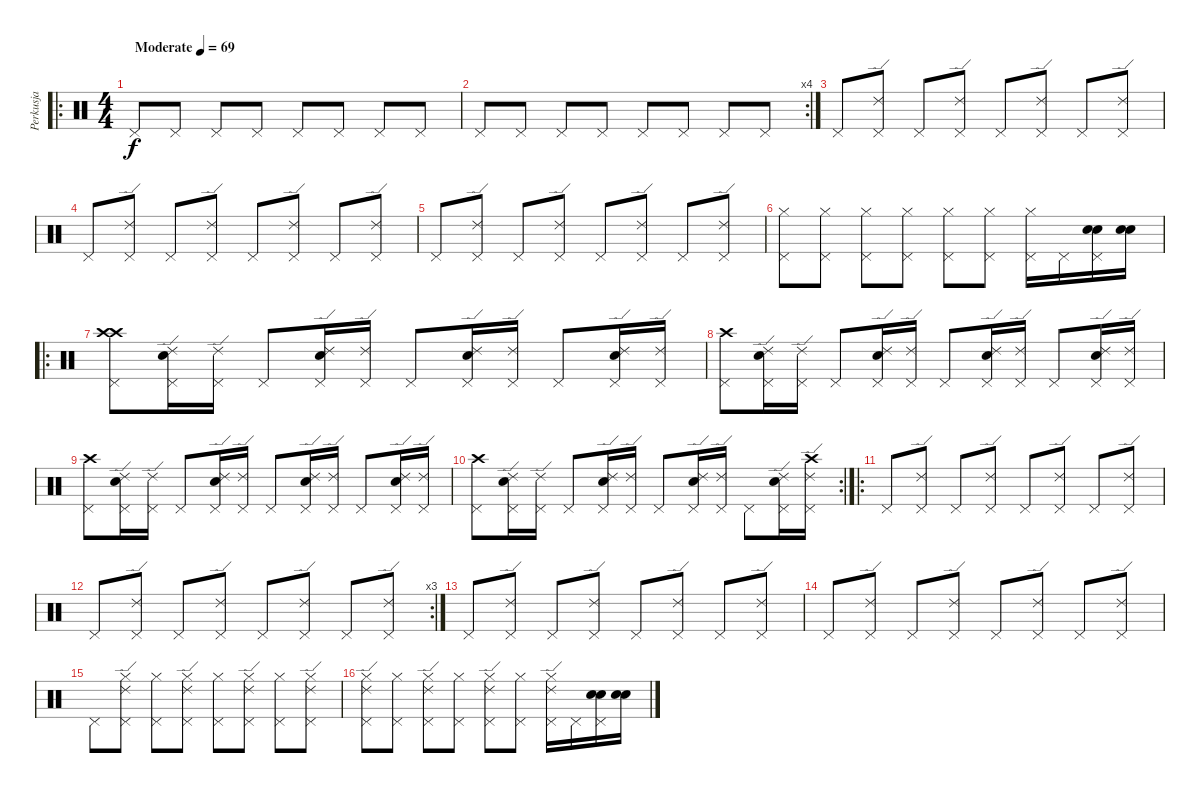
\track ("Perkusja" "Perkusja") {instrument percussion}
\staff {score}
\articulation defaults
\ro
\ts (4 4)
\tempo (69 "Moderate")
\clef neutral
\ks c "Pedal Hi-Hat (hit)".8{dy f} "Pedal Hi-Hat (hit)".8 "Pedal Hi-Hat (hit)".8 "Pedal Hi-Hat (hit)".8 "Pedal Hi-Hat (hit)".8 "Pedal Hi-Hat (hit)".8 "Pedal Hi-Hat (hit)".8 "Pedal Hi-Hat (hit)".8
|
\rc 4 "Pedal Hi-Hat (hit)".8 "Pedal Hi-Hat (hit)".8 "Pedal Hi-Hat (hit)".8 "Pedal Hi-Hat (hit)".8 "Pedal Hi-Hat (hit)".8 "Pedal Hi-Hat (hit)".8 "Pedal Hi-Hat (hit)".8 "Pedal Hi-Hat (hit)".8
|
"Pedal Hi-Hat (hit)".8 ("Pedal Hi-Hat (hit)" "Ride (edge) 2").8 "Pedal Hi-Hat (hit)".8 ("Pedal Hi-Hat (hit)" "Ride (edge) 2").8 "Pedal Hi-Hat (hit)".8 ("Pedal Hi-Hat (hit)" "Ride (edge) 2").8 "Pedal Hi-Hat (hit)".8 ("Pedal Hi-Hat (hit)" "Ride (edge) 2").8 |
"Pedal Hi-Hat (hit)".8 ("Pedal Hi-Hat (hit)" "Ride (edge) 2").8 "Pedal Hi-Hat (hit)".8 ("Pedal Hi-Hat (hit)" "Ride (edge) 2").8 "Pedal Hi-Hat (hit)".8 ("Pedal Hi-Hat (hit)" "Ride (edge) 2").8 "Pedal Hi-Hat (hit)".8 ("Pedal Hi-Hat (hit)" "Ride (edge) 2").8 |
"Pedal Hi-Hat (hit)".8 ("Pedal Hi-Hat (hit)" "Ride (edge) 2").8 "Pedal Hi-Hat (hit)".8 ("Pedal Hi-Hat (hit)" "Ride (edge) 2").8 "Pedal Hi-Hat (hit)".8 ("Pedal Hi-Hat (hit)" "Ride (edge) 2").8 "Pedal Hi-Hat (hit)".8 ("Pedal Hi-Hat (hit)" "Ride (edge) 2").8 |
("Pedal Hi-Hat (hit)" "Hi-Hat (closed)").8 ("Pedal Hi-Hat (hit)" "Hi-Hat (closed)").8 ("Pedal Hi-Hat (hit)" "Hi-Hat (closed)").8 ("Pedal Hi-Hat (hit)" "Hi-Hat (closed)").8 ("Pedal Hi-Hat (hit)" "Hi-Hat (closed)").8 ("Pedal Hi-Hat (hit)" "Hi-Hat (closed)").8 ("Pedal Hi-Hat (hit)" "Hi-Hat (closed)").16 "Pedal Hi-Hat (hit)".16 ("Pedal Hi-Hat (hit)" "Snare (hit) 2" "Snare (hit) 2").16 ("Snare (hit) 2" "Snare (hit) 2").16 |
\ro
("Pedal Hi-Hat (hit)" "Crash high (hit)" "Crash high (hit)").8 ("Pedal Hi-Hat (hit)" "Ride (edge) 2" "Snare (hit) 2").16 ("Pedal Hi-Hat (hit)" "Ride (edge) 2").16 "Pedal Hi-Hat (hit)".8 ("Pedal Hi-Hat (hit)" "Ride (edge) 2" "Snare (hit) 2").16 ("Pedal Hi-Hat (hit)" "Ride (edge) 2").16 "Pedal Hi-Hat (hit)".8 ("Pedal Hi-Hat (hit)" "Ride (edge) 2" "Snare (hit) 2").16 ("Pedal Hi-Hat (hit)" "Ride (edge) 2").16 "Pedal Hi-Hat (hit)".8 ("Pedal Hi-Hat (hit)" "Ride (edge) 2" "Snare (hit) 2").16 ("Pedal Hi-Hat (hit)" "Ride (edge) 2").16 |
("Pedal Hi-Hat (hit)" "Crash high (hit)").8 ("Pedal Hi-Hat (hit)" "Ride (edge) 2" "Snare (hit) 2").16 ("Pedal Hi-Hat (hit)" "Ride (edge) 2").16 "Pedal Hi-Hat (hit)".8 ("Pedal Hi-Hat (hit)" "Ride (edge) 2" "Snare (hit) 2").16 ("Pedal Hi-Hat (hit)" "Ride (edge) 2").16 "Pedal Hi-Hat (hit)".8 ("Pedal Hi-Hat (hit)" "Ride (edge) 2" "Snare (hit) 2").16 ("Pedal Hi-Hat (hit)" "Ride (edge) 2").16 "Pedal Hi-Hat (hit)".8 ("Pedal Hi-Hat (hit)" "Ride (edge) 2" "Snare (hit) 2").16 ("Pedal Hi-Hat (hit)" "Ride (edge) 2").16 |
("Pedal Hi-Hat (hit)" "Crash high (hit)").8 ("Pedal Hi-Hat (hit)" "Ride (edge) 2" "Snare (hit) 2").16 ("Pedal Hi-Hat (hit)" "Ride (edge) 2").16 "Pedal Hi-Hat (hit)".8 ("Pedal Hi-Hat (hit)" "Ride (edge) 2" "Snare (hit) 2").16 ("Pedal Hi-Hat (hit)" "Ride (edge) 2").16 "Pedal Hi-Hat (hit)".8 ("Pedal Hi-Hat (hit)" "Ride (edge) 2" "Snare (hit) 2").16 ("Pedal Hi-Hat (hit)" "Ride (edge) 2").16 "Pedal Hi-Hat (hit)".8 ("Pedal Hi-Hat (hit)" "Ride (edge) 2" "Snare (hit) 2").16 ("Pedal Hi-Hat (hit)" "Ride (edge) 2").16 |
\rc 2
("Pedal Hi-Hat (hit)" "Crash high (hit)").8 ("Pedal Hi-Hat (hit)" "Ride (edge) 2" "Snare (hit) 2").16 ("Pedal Hi-Hat (hit)" "Ride (edge) 2").16 "Pedal Hi-Hat (hit)".8 ("Pedal Hi-Hat (hit)" "Ride (edge) 2" "Snare (hit) 2").16 ("Pedal Hi-Hat (hit)" "Ride (edge) 2").16 "Pedal Hi-Hat (hit)".8 ("Pedal Hi-Hat (hit)" "Ride (edge) 2" "Snare (hit) 2").16 ("Pedal Hi-Hat (hit)" "Ride (edge) 2").16 "Pedal Hi-Hat (hit)".8 ("Pedal Hi-Hat (hit)" "Ride (edge) 2" "Snare (hit) 2").16 ("Pedal Hi-Hat (hit)" "Ride (edge) 2" "Crash high (hit)").16 |
\ro "Pedal Hi-Hat (hit)".8
("Pedal Hi-Hat (hit)" "Ride (edge) 2").8 "Pedal Hi-Hat (hit)".8 ("Pedal Hi-Hat (hit)" "Ride (edge) 2").8 "Pedal Hi-Hat (hit)".8 ("Pedal Hi-Hat (hit)" "Ride (edge) 2").8 "Pedal Hi-Hat (hit)".8 ("Pedal Hi-Hat (hit)" "Ride (edge) 2").8 |
\rc 3 "Pedal Hi-Hat (hit)".8
("Pedal Hi-Hat (hit)" "Ride (edge) 2").8 "Pedal Hi-Hat (hit)".8 ("Pedal Hi-Hat (hit)" "Ride (edge) 2").8 "Pedal Hi-Hat (hit)".8 ("Pedal Hi-Hat (hit)" "Ride (edge) 2").8 "Pedal Hi-Hat (hit)".8 ("Pedal Hi-Hat (hit)" "Ride (edge) 2").8 |
"Pedal Hi-Hat (hit)".8 ("Pedal Hi-Hat (hit)" "Ride (edge) 2").8 "Pedal Hi-Hat (hit)".8 ("Pedal Hi-Hat (hit)" "Ride (edge) 2").8 "Pedal Hi-Hat (hit)".8 ("Pedal Hi-Hat (hit)" "Ride (edge) 2").8 "Pedal Hi-Hat (hit)".8 ("Pedal Hi-Hat (hit)" "Ride (edge) 2").8 |
"Pedal Hi-Hat (hit)".8 ("Pedal Hi-Hat (hit)" "Ride (edge) 2").8 "Pedal Hi-Hat (hit)".8 ("Pedal Hi-Hat (hit)" "Ride (edge) 2").8 "Pedal Hi-Hat (hit)".8 ("Pedal Hi-Hat (hit)" "Ride (edge) 2").8 "Pedal Hi-Hat (hit)".8 ("Pedal Hi-Hat (hit)" "Ride (edge) 2").8 |
"Pedal Hi-Hat (hit)".8 ("Pedal Hi-Hat (hit)" "Ride (edge) 2" "Hi-Hat (closed)").8 ("Pedal Hi-Hat (hit)" "Hi-Hat (closed)").8 ("Pedal Hi-Hat (hit)" "Ride (edge) 2" "Hi-Hat (closed)").8 ("Pedal Hi-Hat (hit)" "Hi-Hat (closed)").8 ("Pedal Hi-Hat (hit)" "Ride (edge) 2" "Hi-Hat (closed)").8 ("Pedal Hi-Hat (hit)" "Hi-Hat (closed)").8 ("Pedal Hi-Hat (hit)" "Ride (edge) 2" "Hi-Hat (closed)").8 |
("Pedal Hi-Hat (hit)" "Ride (edge) 2" "Hi-Hat (closed)").8 ("Pedal Hi-Hat (hit)" "Hi-Hat (closed)").8 ("Pedal Hi-Hat (hit)" "Ride (edge) 2" "Hi-Hat (closed)").8 ("Pedal Hi-Hat (hit)" "Hi-Hat (closed)").8 ("Pedal Hi-Hat (hit)" "Ride (edge) 2" "Hi-Hat (closed)").8 ("Pedal Hi-Hat (hit)" "Hi-Hat (closed)").8 ("Pedal Hi-Hat (hit)" "Ride (edge) 2" "Hi-Hat (closed)").16 "Pedal Hi-Hat (hit)".16 ("Pedal Hi-Hat (hit)" "Snare (hit) 2" "Snare (hit) 2").16 ("Snare (hit) 2" "Snare (hit) 2").16
